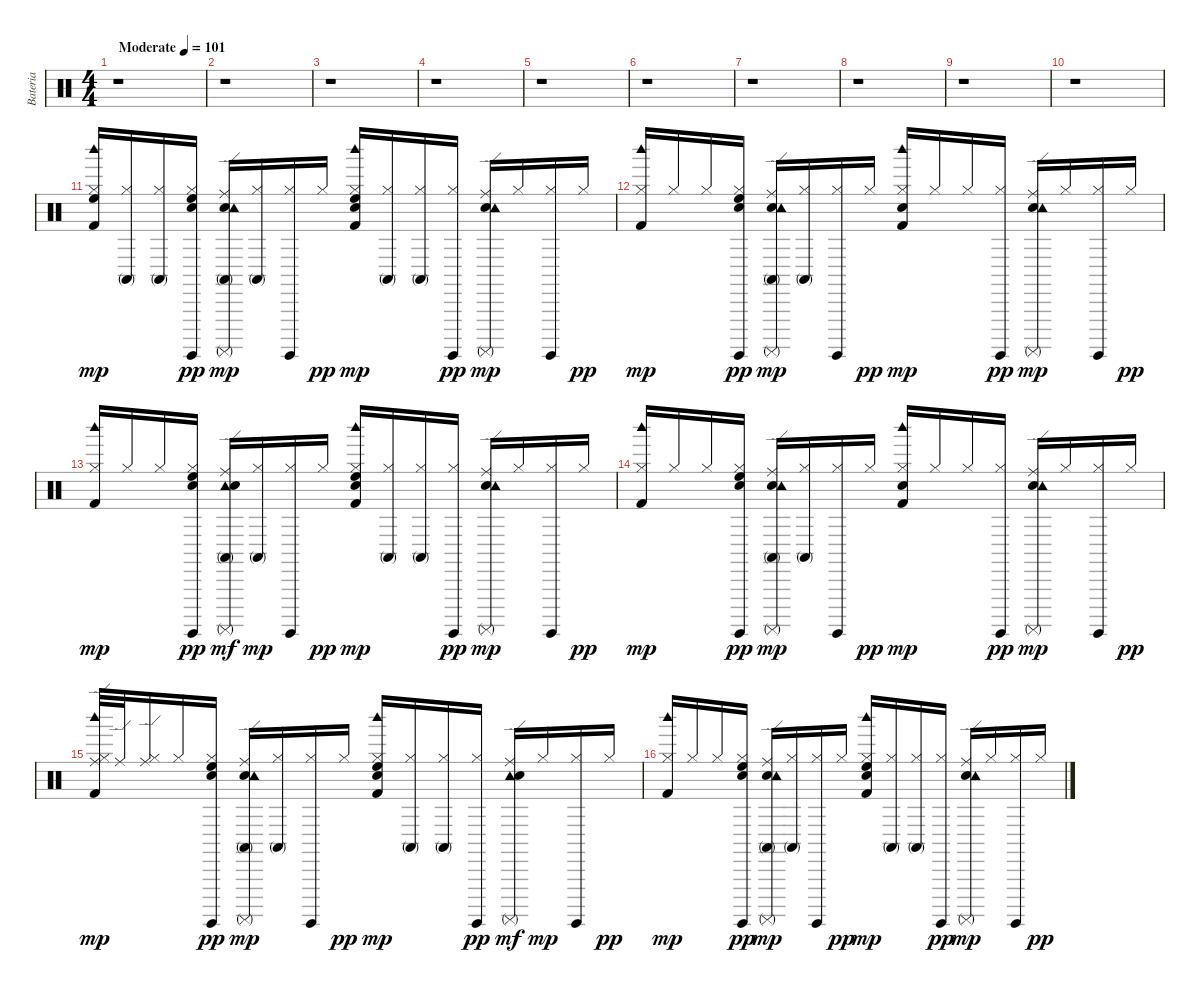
\track ("Bateria" "Bateria") {instrument percussion}
\staff {score}
\articulation defaults
\ts (4 4)
\tempo (101 "Moderate")
\clef neutral
\ks c
r.1{dy mp} |
r.1 |
r.1 |
r.1 |
r.1 |
r.1 |
r.1 |
r.1 |
r.1 |
r.1 |
("High Floor Tom (hit)" "Kick (hit) 2" "Hi-Hat (closed)" "Woodblock high (hit)").16{volume 13 balance 8} ("Conga high (mute)" "Hi-Hat (closed)").16 ("Conga high (mute)" "Hi-Hat (closed)").16 ("High Floor Tom (hit)" "Snare (hit)" "Surdo (hit)" "Hi-Hat (closed)").16{dy pp} ("Conga high (mute)" "Ride (edge)" "Electric Snare (hit)" "Surdo (mute)" "Tambourine (hit)").16{dy mp} ("Conga high (mute)" "Hi-Hat (closed)").16 ("Surdo (hit)" "Hi-Hat (closed)").16 "Hi-Hat (closed)".16{dy pp} ("High Floor Tom (hit)" "Snare (hit)" "Kick (hit) 2" "Hi-Hat (closed)" "Woodblock high (hit)").16{dy mp} ("Conga high (mute)" "Hi-Hat (closed)").16 ("Conga high (mute)" "Hi-Hat (closed)").16 ("Surdo (hit)" "Hi-Hat (closed)").16{dy pp} ("Ride (edge)" "Electric Snare (hit)" "Surdo (mute)" "Tambourine (hit)").16{dy mp} "Hi-Hat (closed)".16 ("Surdo (hit)" "Hi-Hat (closed)").16 "Hi-Hat (closed)".16{dy pp} |
("Hi-Hat (closed)" "Woodblock high (hit)" "Kick (hit) 2").16{dy mp} "Hi-Hat (closed)".16 "Hi-Hat (closed)".16 ("High Floor Tom (hit)" "Snare (hit)" "Surdo (hit)" "Hi-Hat (closed)").16{dy pp} ("Conga high (mute)" "Ride (edge)" "Electric Snare (hit)" "Surdo (mute)" "Tambourine (hit)").16{dy mp} ("Conga high (mute)" "Hi-Hat (closed)").16 ("Surdo (hit)" "Hi-Hat (closed)").16 "Hi-Hat (closed)".16{dy pp} ("Snare (hit)" "Kick (hit) 2" "Hi-Hat (closed)" "Woodblock high (hit)").16{dy mp} "Hi-Hat (closed)".16 "Hi-Hat (closed)".16 ("Surdo (hit)" "Hi-Hat (closed)").16{dy pp} ("Ride (edge)" "Electric Snare (hit)" "Surdo (mute)" "Tambourine (hit)").16{dy mp} "Hi-Hat (closed)".16 ("Surdo (hit)" "Hi-Hat (closed)").16 "Hi-Hat (closed)".16{dy pp} |
("Hi-Hat (closed)" "Woodblock high (hit)" "Kick (hit) 2").16{dy mp} "Hi-Hat (closed)".16 "Hi-Hat (closed)".16 ("High Floor Tom (hit)" "Snare (hit)" "Surdo (hit)" "Hi-Hat (closed)").16{dy pp} ("Conga high (mute)" "Ride (edge)" "Tambourine (hit)" "Electric Snare (hit)" "Surdo (mute)").16{dy mf} ("Conga high (mute)" "Hi-Hat (closed)").16{dy mp} ("Surdo (hit)" "Hi-Hat (closed)").16 "Hi-Hat (closed)".16{dy pp} ("High Floor Tom (hit)" "Snare (hit)" "Kick (hit) 2" "Hi-Hat (closed)" "Woodblock high (hit)").16{dy mp} ("Conga high (mute)" "Hi-Hat (closed)").16 ("Conga high (mute)" "Hi-Hat (closed)").16 ("Surdo (hit)" "Hi-Hat (closed)").16{dy pp} ("Ride (edge)" "Electric Snare (hit)" "Surdo (mute)" "Tambourine (hit)").16{dy mp} "Hi-Hat (closed)".16 ("Surdo (hit)" "Hi-Hat (closed)").16 "Hi-Hat (closed)".16{dy pp} |
("Kick (hit) 2" "Hi-Hat (closed)" "Woodblock high (hit)").16{dy mp} "Hi-Hat (closed)".16 "Hi-Hat (closed)".16 ("High Floor Tom (hit)" "Snare (hit)" "Surdo (hit)" "Hi-Hat (closed)").16{dy pp} ("Conga high (mute)" "Ride (edge)" "Electric Snare (hit)" "Surdo (mute)" "Tambourine (hit)").16{dy mp} ("Conga high (mute)" "Hi-Hat (closed)").16 ("Surdo (hit)" "Hi-Hat (closed)").16 "Hi-Hat (closed)".16{dy pp} ("Snare (hit)" "Kick (hit) 2" "Hi-Hat (closed)" "Woodblock high (hit)").16{dy mp} "Hi-Hat (closed)".16 "Hi-Hat (closed)".16 ("Surdo (hit)" "Hi-Hat (closed)").16{dy pp} ("Ride (edge)" "Electric Snare (hit)" "Surdo (mute)" "Tambourine (hit)").16{dy mp} "Hi-Hat (closed)".16 ("Surdo (hit)" "Hi-Hat (closed)").16 "Hi-Hat (closed)".16{dy pp} |
("Ride (edge)" "Kick (hit) 2" "Hi-Hat (closed)" "Woodblock high (hit)").32{dy mp} "Ride (edge)".32 ("Ride (edge)" "Hi-Hat (closed)").16 "Hi-Hat (closed)".16 ("High Floor Tom (hit)" "Snare (hit)" "Surdo (hit)" "Hi-Hat (closed)").16{dy pp} ("Conga high (mute)" "Ride (edge)" "Electric Snare (hit)" "Surdo (mute)" "Tambourine (hit)").16{dy mp} ("Conga high (mute)" "Hi-Hat (closed)").16 ("Surdo (hit)" "Hi-Hat (closed)").16 "Hi-Hat (closed)".16{dy pp} ("High Floor Tom (hit)" "Snare (hit)" "Kick (hit) 2" "Hi-Hat (closed)" "Woodblock high (hit)").16{dy mp} ("Conga high (mute)" "Hi-Hat (closed)").16 ("Conga high (mute)" "Hi-Hat (closed)").16 ("Surdo (hit)" "Hi-Hat (closed)").16{dy pp} ("Ride (edge)" "Surdo (mute)" "Tambourine (hit)" "Electric Snare (hit)").16{dy mf} "Hi-Hat (closed)".16{dy mp} ("Surdo (hit)" "Hi-Hat (closed)").16 "Hi-Hat (closed)".16{dy pp} |
("Kick (hit) 2" "Hi-Hat (closed)" "Woodblock high (hit)").16{dy mp} "Hi-Hat (closed)".16 "Hi-Hat (closed)".16 ("High Floor Tom (hit)" "Snare (hit)" "Surdo (hit)" "Hi-Hat (closed)").16{dy pp} ("Conga high (mute)" "Ride (edge)" "Electric Snare (hit)" "Surdo (mute)" "Tambourine (hit)").16{dy mp} ("Conga high (mute)" "Hi-Hat (closed)").16 ("Surdo (hit)" "Hi-Hat (closed)").16 "Hi-Hat (closed)".16{dy pp} ("High Floor Tom (hit)" "Snare (hit)" "Kick (hit) 2" "Hi-Hat (closed)" "Woodblock high (hit)").16{dy mp} ("Conga high (mute)" "Hi-Hat (closed)").16 ("Conga high (mute)" "Hi-Hat (closed)").16 ("Surdo (hit)" "Hi-Hat (closed)").16{dy pp} ("Ride (edge)" "Electric Snare (hit)" "Surdo (mute)" "Tambourine (hit)").16{dy mp} "Hi-Hat (closed)".16 ("Surdo (hit)" "Hi-Hat (closed)").16 "Hi-Hat (closed)".16{dy pp}
